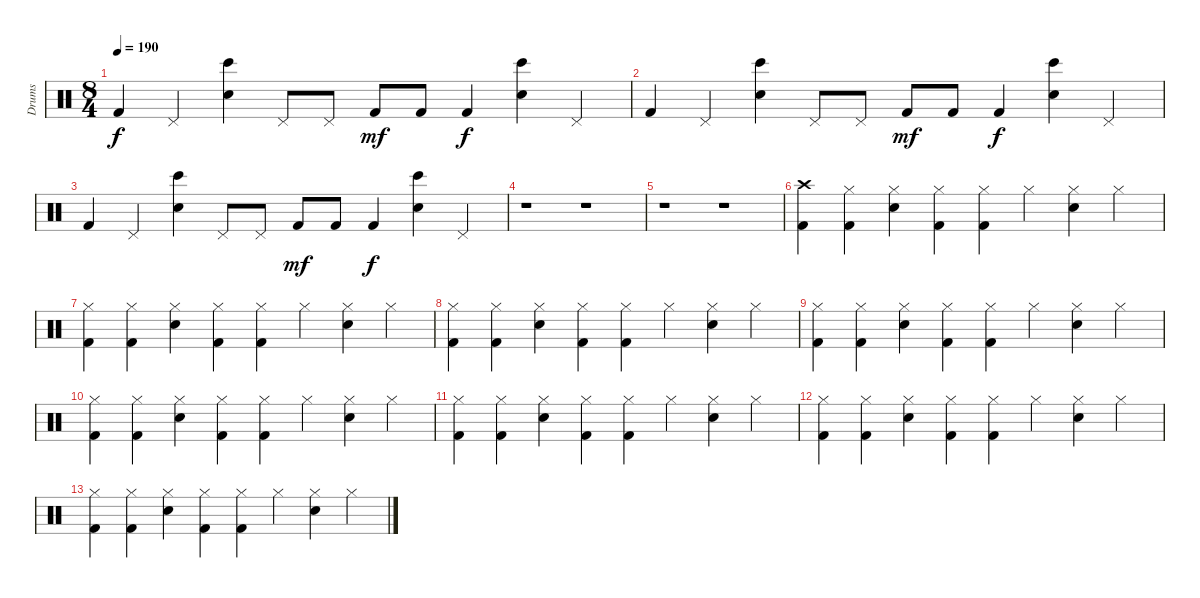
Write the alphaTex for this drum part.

\track ("Drums" "Drums") {instrument percussion}
\staff {score}
\articulation defaults
\ts (8 4)
\tempo 190
\clef neutral
\ks c "Kick (hit) 2".4{dy f} "Pedal Hi-Hat (hit)".4
("Bongo High (hit)" "Hand Clap (hit)").4 "Pedal Hi-Hat (hit)".8 "Pedal Hi-Hat (hit)".8 "Kick (hit) 2".8{dy mf} "Kick (hit) 2".8 "Kick (hit) 2".4{dy f} ("Bongo High (hit)" "Hand Clap (hit)").4 "Pedal Hi-Hat (hit)".4 |
"Kick (hit) 2".4 "Pedal Hi-Hat (hit)".4 ("Bongo High (hit)" "Hand Clap (hit)").4 "Pedal Hi-Hat (hit)".8 "Pedal Hi-Hat (hit)".8 "Kick (hit) 2".8{dy mf} "Kick (hit) 2".8 "Kick (hit) 2".4{dy f} ("Bongo High (hit)" "Hand Clap (hit)").4 "Pedal Hi-Hat (hit)".4 |
"Kick (hit) 2".4 "Pedal Hi-Hat (hit)".4 ("Bongo High (hit)" "Hand Clap (hit)").4 "Pedal Hi-Hat (hit)".8 "Pedal Hi-Hat (hit)".8 "Kick (hit) 2".8{dy mf} "Kick (hit) 2".8 "Kick (hit) 2".4{dy f} ("Bongo High (hit)" "Hand Clap (hit)").4 "Pedal Hi-Hat (hit)".4 |
r.1 r.1 |
r.1 r.1 |
("Crash high (hit)" "Kick (hit) 2").4{volume 13} ("Hi-Hat (closed)" "Kick (hit) 2").4 ("Hi-Hat (closed)" "Snare (hit) 2").4 ("Hi-Hat (closed)" "Kick (hit) 2").4 ("Hi-Hat (closed)" "Kick (hit) 2").4 "Hi-Hat (closed)".4 ("Hi-Hat (closed)" "Snare (hit) 2").4 "Hi-Hat (closed)".4 |
("Hi-Hat (closed)" "Kick (hit) 2").4 ("Hi-Hat (closed)" "Kick (hit) 2").4 ("Hi-Hat (closed)" "Snare (hit) 2").4 ("Hi-Hat (closed)" "Kick (hit) 2").4 ("Hi-Hat (closed)" "Kick (hit) 2").4 "Hi-Hat (closed)".4 ("Hi-Hat (closed)" "Snare (hit) 2").4 "Hi-Hat (closed)".4 |
("Hi-Hat (closed)" "Kick (hit) 2").4 ("Hi-Hat (closed)" "Kick (hit) 2").4 ("Hi-Hat (closed)" "Snare (hit) 2").4 ("Hi-Hat (closed)" "Kick (hit) 2").4 ("Hi-Hat (closed)" "Kick (hit) 2").4 "Hi-Hat (closed)".4 ("Hi-Hat (closed)" "Snare (hit) 2").4 "Hi-Hat (closed)".4 |
("Hi-Hat (closed)" "Kick (hit) 2").4 ("Hi-Hat (closed)" "Kick (hit) 2").4 ("Hi-Hat (closed)" "Snare (hit) 2").4 ("Hi-Hat (closed)" "Kick (hit) 2").4 ("Hi-Hat (closed)" "Kick (hit) 2").4 "Hi-Hat (closed)".4 ("Hi-Hat (closed)" "Snare (hit) 2").4 "Hi-Hat (closed)".4 |
("Hi-Hat (closed)" "Kick (hit) 2").4 ("Hi-Hat (closed)" "Kick (hit) 2").4 ("Hi-Hat (closed)" "Snare (hit) 2").4 ("Hi-Hat (closed)" "Kick (hit) 2").4 ("Hi-Hat (closed)" "Kick (hit) 2").4 "Hi-Hat (closed)".4 ("Hi-Hat (closed)" "Snare (hit) 2").4 "Hi-Hat (closed)".4 |
("Hi-Hat (closed)" "Kick (hit) 2").4 ("Hi-Hat (closed)" "Kick (hit) 2").4 ("Hi-Hat (closed)" "Snare (hit) 2").4 ("Hi-Hat (closed)" "Kick (hit) 2").4 ("Hi-Hat (closed)" "Kick (hit) 2").4 "Hi-Hat (closed)".4 ("Hi-Hat (closed)" "Snare (hit) 2").4 "Hi-Hat (closed)".4 |
("Hi-Hat (closed)" "Kick (hit) 2").4 ("Hi-Hat (closed)" "Kick (hit) 2").4 ("Hi-Hat (closed)" "Snare (hit) 2").4 ("Hi-Hat (closed)" "Kick (hit) 2").4 ("Hi-Hat (closed)" "Kick (hit) 2").4 "Hi-Hat (closed)".4 ("Hi-Hat (closed)" "Snare (hit) 2").4 "Hi-Hat (closed)".4 |
("Hi-Hat (closed)" "Kick (hit) 2").4 ("Hi-Hat (closed)" "Kick (hit) 2").4 ("Hi-Hat (closed)" "Snare (hit) 2").4 ("Hi-Hat (closed)" "Kick (hit) 2").4 ("Hi-Hat (closed)" "Kick (hit) 2").4 "Hi-Hat (closed)".4 ("Hi-Hat (closed)" "Snare (hit) 2").4 "Hi-Hat (closed)".4
